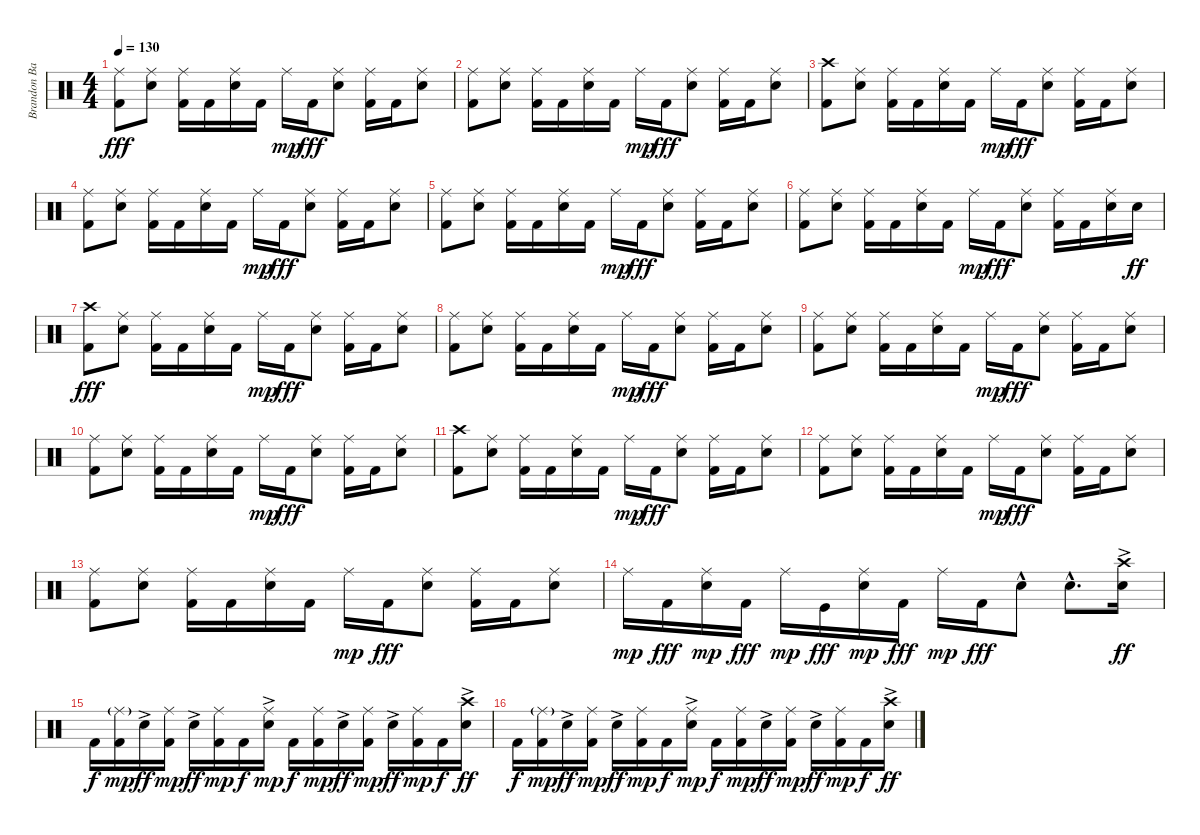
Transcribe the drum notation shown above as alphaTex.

\track ("Brandon Barnes - Drums" "Brandon Ba") {instrument percussion}
\staff {score}
\articulation defaults
\ts (4 4)
\tempo 130
\clef neutral
\ks c
("Ride (middle)" "Kick (hit) 2").8{dy fff} ("Ride (middle)" "Snare (hit) 2").8 ("Ride (middle)" "Kick (hit) 2").16 "Kick (hit) 2".16 ("Ride (middle)" "Snare (hit) 2").16 "Kick (hit) 2".16 "Ride (middle)".16{dy mp} "Kick (hit) 2".16{dy fff} ("Ride (middle)" "Snare (hit) 2").8 ("Ride (middle)" "Kick (hit) 2").16 "Kick (hit) 2".16 ("Ride (middle)" "Snare (hit) 2").8 |
("Ride (middle)" "Kick (hit) 2").8 ("Ride (middle)" "Snare (hit) 2").8 ("Ride (middle)" "Kick (hit) 2").16 "Kick (hit) 2".16 ("Ride (middle)" "Snare (hit) 2").16 "Kick (hit) 2".16 "Ride (middle)".16{dy mp} "Kick (hit) 2".16{dy fff} ("Ride (middle)" "Snare (hit) 2").8 ("Ride (middle)" "Kick (hit) 2").16 "Kick (hit) 2".16 ("Ride (middle)" "Snare (hit) 2").8 |
("Crash high (hit)" "Kick (hit) 2").8 ("Ride (middle)" "Snare (hit) 2").8 ("Ride (middle)" "Kick (hit) 2").16 "Kick (hit) 2".16 ("Ride (middle)" "Snare (hit) 2").16 "Kick (hit) 2".16 "Ride (middle)".16{dy mp} "Kick (hit) 2".16{dy fff} ("Ride (middle)" "Snare (hit) 2").8 ("Ride (middle)" "Kick (hit) 2").16 "Kick (hit) 2".16 ("Ride (middle)" "Snare (hit) 2").8 |
("Ride (middle)" "Kick (hit) 2").8 ("Ride (middle)" "Snare (hit) 2").8 ("Ride (middle)" "Kick (hit) 2").16 "Kick (hit) 2".16 ("Ride (middle)" "Snare (hit) 2").16 "Kick (hit) 2".16 "Ride (middle)".16{dy mp} "Kick (hit) 2".16{dy fff} ("Ride (middle)" "Snare (hit) 2").8 ("Ride (middle)" "Kick (hit) 2").16 "Kick (hit) 2".16 ("Ride (middle)" "Snare (hit) 2").8 |
("Ride (middle)" "Kick (hit) 2").8 ("Ride (middle)" "Snare (hit) 2").8 ("Ride (middle)" "Kick (hit) 2").16 "Kick (hit) 2".16 ("Ride (middle)" "Snare (hit) 2").16 "Kick (hit) 2".16 "Ride (middle)".16{dy mp} "Kick (hit) 2".16{dy fff} ("Ride (middle)" "Snare (hit) 2").8 ("Ride (middle)" "Kick (hit) 2").16 "Kick (hit) 2".16 ("Ride (middle)" "Snare (hit) 2").8 |
("Ride (middle)" "Kick (hit) 2").8 ("Ride (middle)" "Snare (hit) 2").8 ("Ride (middle)" "Kick (hit) 2").16 "Kick (hit) 2".16 ("Ride (middle)" "Snare (hit) 2").16 "Kick (hit) 2".16 "Ride (middle)".16{dy mp} "Kick (hit) 2".16{dy fff} ("Ride (middle)" "Snare (hit) 2").8 ("Ride (middle)" "Kick (hit) 2").16 "Kick (hit) 2".16 ("Ride (middle)" "Snare (hit) 2").16 "Snare (hit) 2".16{dy ff} |
("Crash high (hit)" "Kick (hit) 2").8{dy fff} ("Ride (middle)" "Snare (hit) 2").8 ("Ride (middle)" "Kick (hit) 2").16 "Kick (hit) 2".16 ("Ride (middle)" "Snare (hit) 2").16 "Kick (hit) 2".16 "Ride (middle)".16{dy mp} "Kick (hit) 2".16{dy fff} ("Ride (middle)" "Snare (hit) 2").8 ("Ride (middle)" "Kick (hit) 2").16 "Kick (hit) 2".16 ("Ride (middle)" "Snare (hit) 2").8 |
("Ride (middle)" "Kick (hit) 2").8 ("Ride (middle)" "Snare (hit) 2").8 ("Ride (middle)" "Kick (hit) 2").16 "Kick (hit) 2".16 ("Ride (middle)" "Snare (hit) 2").16 "Kick (hit) 2".16 "Ride (middle)".16{dy mp} "Kick (hit) 2".16{dy fff} ("Ride (middle)" "Snare (hit) 2").8 ("Ride (middle)" "Kick (hit) 2").16 "Kick (hit) 2".16 ("Ride (middle)" "Snare (hit) 2").8 |
("Ride (middle)" "Kick (hit) 2").8 ("Ride (middle)" "Snare (hit) 2").8 ("Ride (middle)" "Kick (hit) 2").16 "Kick (hit) 2".16 ("Ride (middle)" "Snare (hit) 2").16 "Kick (hit) 2".16 "Ride (middle)".16{dy mp} "Kick (hit) 2".16{dy fff} ("Ride (middle)" "Snare (hit) 2").8 ("Ride (middle)" "Kick (hit) 2").16 "Kick (hit) 2".16 ("Ride (middle)" "Snare (hit) 2").8 |
("Ride (middle)" "Kick (hit) 2").8 ("Ride (middle)" "Snare (hit) 2").8 ("Ride (middle)" "Kick (hit) 2").16 "Kick (hit) 2".16 ("Ride (middle)" "Snare (hit) 2").16 "Kick (hit) 2".16 "Ride (middle)".16{dy mp} "Kick (hit) 2".16{dy fff} ("Ride (middle)" "Snare (hit) 2").8 ("Ride (middle)" "Kick (hit) 2").16 "Kick (hit) 2".16 ("Ride (middle)" "Snare (hit) 2").8 |
("Crash high (hit)" "Kick (hit) 2").8 ("Ride (middle)" "Snare (hit) 2").8 ("Ride (middle)" "Kick (hit) 2").16 "Kick (hit) 2".16 ("Ride (middle)" "Snare (hit) 2").16 "Kick (hit) 2".16 "Ride (middle)".16{dy mp} "Kick (hit) 2".16{dy fff} ("Ride (middle)" "Snare (hit) 2").8 ("Ride (middle)" "Kick (hit) 2").16 "Kick (hit) 2".16 ("Ride (middle)" "Snare (hit) 2").8 |
("Ride (middle)" "Kick (hit) 2").8 ("Ride (middle)" "Snare (hit) 2").8 ("Ride (middle)" "Kick (hit) 2").16 "Kick (hit) 2".16 ("Ride (middle)" "Snare (hit) 2").16 "Kick (hit) 2".16 "Ride (middle)".16{dy mp} "Kick (hit) 2".16{dy fff} ("Ride (middle)" "Snare (hit) 2").8 ("Ride (middle)" "Kick (hit) 2").16 "Kick (hit) 2".16 ("Ride (middle)" "Snare (hit) 2").8 |
("Ride (middle)" "Kick (hit) 2").8 ("Ride (middle)" "Snare (hit) 2").8 ("Ride (middle)" "Kick (hit) 2").16 "Kick (hit) 2".16 ("Ride (middle)" "Snare (hit) 2").16 "Kick (hit) 2".16 "Ride (middle)".16{dy mp} "Kick (hit) 2".16{dy fff} ("Ride (middle)" "Snare (hit) 2").8 ("Ride (middle)" "Kick (hit) 2").16 "Kick (hit) 2".16 ("Ride (middle)" "Snare (hit) 2").8 |
"Ride (middle)".16{dy mp} "Kick (hit) 2".16{dy fff} ("Snare (hit) 2" "Ride (middle)").16{dy mp} "Kick (hit) 2".16{dy fff} "Ride (middle)".16{dy mp} "Kick (hit)".16{dy fff} ("Snare (hit) 2" "Ride (middle)").16{dy mp} "Kick (hit) 2".16{dy fff} "Ride (middle)".16{dy mp} "Kick (hit) 2".16{dy fff} "Snare (hit) 2"{hac}.8 "Snare (hit) 2"{hac}.8{d} ("Crash high (hit)"{ac} "Snare (hit) 2"{ac}).16{dy ff} |
"Kick (hit) 2".16{dy f} ("Kick (hit) 2" "Ride (middle)"{g}).16{dy mp} "Snare (hit) 2"{ac}.16{dy ff} ("Kick (hit) 2" "Ride (middle)").16{dy mp} "Snare (hit) 2"{ac}.16{dy ff} ("Kick (hit) 2" "Ride (middle)").16{dy mp} "Kick (hit) 2".16{dy f} ("Snare (hit) 2"{ac} "Ride (middle)").16{dy mp} "Kick (hit) 2".16{dy f} ("Kick (hit) 2" "Ride (middle)").16{dy mp} "Snare (hit) 2"{ac}.16{dy ff} ("Kick (hit) 2" "Ride (middle)").16{dy mp} "Snare (hit) 2"{ac}.16{dy ff} ("Kick (hit) 2" "Ride (middle)").16{dy mp} "Kick (hit) 2".16{dy f} ("Crash high (hit)"{ac} "Snare (hit) 2"{ac}).16{dy ff} |
"Kick (hit) 2".16{dy f} ("Kick (hit) 2" "Ride (middle)"{g}).16{dy mp} "Snare (hit) 2"{ac}.16{dy ff} ("Kick (hit) 2" "Ride (middle)").16{dy mp} "Snare (hit) 2"{ac}.16{dy ff} ("Kick (hit) 2" "Ride (middle)").16{dy mp} "Kick (hit) 2".16{dy f} ("Snare (hit) 2"{ac} "Ride (middle)").16{dy mp} "Kick (hit) 2".16{dy f} ("Kick (hit) 2" "Ride (middle)").16{dy mp} "Snare (hit) 2"{ac}.16{dy ff} ("Kick (hit) 2" "Ride (middle)").16{dy mp} "Snare (hit) 2"{ac}.16{dy ff} ("Kick (hit) 2" "Ride (middle)").16{dy mp} "Kick (hit) 2".16{dy f} ("Crash high (hit)"{ac} "Snare (hit) 2"{ac}).16{dy ff}
